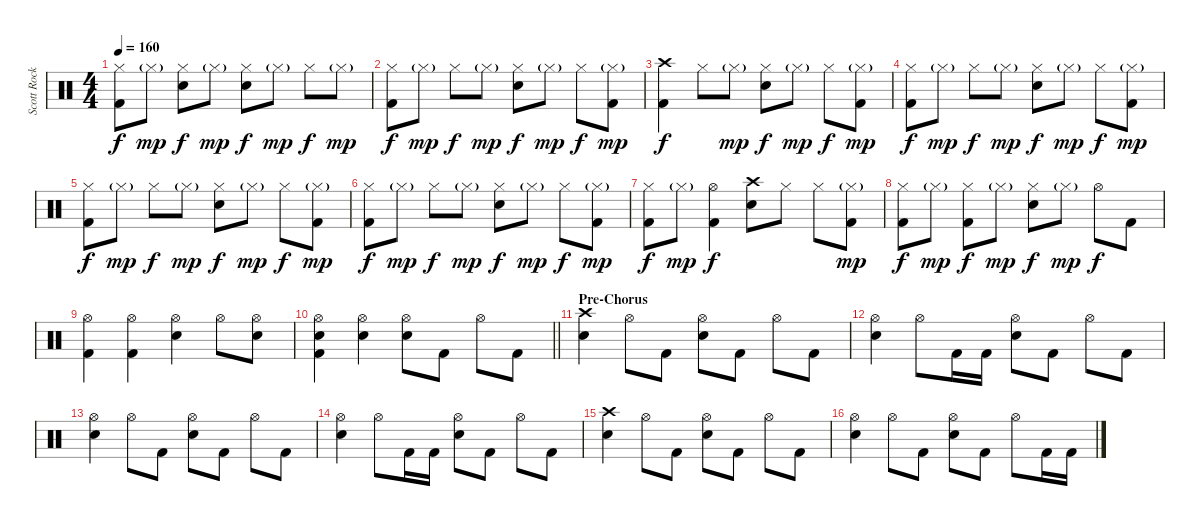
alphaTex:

\track ("Scott Rockenfield" "Scott Rock") {instrument percussion}
\staff {score}
\articulation defaults
\ts (4 4)
\tempo 160
\clef neutral
\ks c
("Hi-Hat (closed)" "Kick (hit) 2").8{dy f} "Hi-Hat (closed)"{g}.8{dy mp} ("Hi-Hat (closed)" "Electric Snare (hit)").8{dy f} "Hi-Hat (closed)"{g}.8{dy mp} ("Hi-Hat (closed)" "Electric Snare (hit)").8{dy f} "Hi-Hat (closed)"{g}.8{dy mp} "Hi-Hat (closed)".8{dy f} "Hi-Hat (closed)"{g}.8{dy mp} |
("Hi-Hat (closed)" "Kick (hit) 2").8{dy f} "Hi-Hat (closed)"{g}.8{dy mp} "Hi-Hat (closed)".8{dy f} "Hi-Hat (closed)"{g}.8{dy mp} ("Hi-Hat (closed)" "Electric Snare (hit)").8{dy f} "Hi-Hat (closed)"{g}.8{dy mp} "Hi-Hat (closed)".8{dy f} ("Hi-Hat (closed)"{g} "Kick (hit) 2").8{dy mp} |
("Crash high (hit)" "Kick (hit) 2").4{dy f} "Hi-Hat (closed)".8 "Hi-Hat (closed)"{g}.8{dy mp} ("Hi-Hat (closed)" "Electric Snare (hit)").8{dy f} "Hi-Hat (closed)"{g}.8{dy mp} "Hi-Hat (closed)".8{dy f} ("Hi-Hat (closed)"{g} "Kick (hit) 2").8{dy mp} |
("Hi-Hat (closed)" "Kick (hit) 2").8{dy f} "Hi-Hat (closed)"{g}.8{dy mp} "Hi-Hat (closed)".8{dy f} "Hi-Hat (closed)"{g}.8{dy mp} ("Hi-Hat (closed)" "Electric Snare (hit)").8{dy f} "Hi-Hat (closed)"{g}.8{dy mp} "Hi-Hat (closed)".8{dy f} ("Hi-Hat (closed)"{g} "Kick (hit) 2").8{dy mp} |
("Hi-Hat (closed)" "Kick (hit) 2").8{dy f} "Hi-Hat (closed)"{g}.8{dy mp} "Hi-Hat (closed)".8{dy f} "Hi-Hat (closed)"{g}.8{dy mp} ("Hi-Hat (closed)" "Electric Snare (hit)").8{dy f} "Hi-Hat (closed)"{g}.8{dy mp} "Hi-Hat (closed)".8{dy f} ("Hi-Hat (closed)"{g} "Kick (hit) 2").8{dy mp} |
("Hi-Hat (closed)" "Kick (hit) 2").8{dy f} "Hi-Hat (closed)"{g}.8{dy mp} "Hi-Hat (closed)".8{dy f} "Hi-Hat (closed)"{g}.8{dy mp} ("Hi-Hat (closed)" "Electric Snare (hit)").8{dy f} "Hi-Hat (closed)"{g}.8{dy mp} "Hi-Hat (closed)".8{dy f} ("Hi-Hat (closed)"{g} "Kick (hit) 2").8{dy mp} |
("Hi-Hat (closed)" "Kick (hit) 2").8{dy f} "Hi-Hat (closed)"{g}.8{dy mp} ("Hi-Hat (open)" "Kick (hit) 2").4{dy f} ("Crash high (hit)" "Electric Snare (hit)").8 "Hi-Hat (closed)".8 "Hi-Hat (closed)".8 ("Hi-Hat (closed)"{g} "Kick (hit) 2").8{dy mp} |
("Hi-Hat (closed)" "Kick (hit) 2").8{dy f} "Hi-Hat (closed)"{g}.8{dy mp} ("Hi-Hat (closed)" "Kick (hit) 2").8{dy f} "Hi-Hat (closed)"{g}.8{dy mp} ("Hi-Hat (closed)" "Electric Snare (hit)").8{dy f} "Hi-Hat (closed)"{g}.8{dy mp} "Hi-Hat (open)".8{dy f} "Kick (hit) 2".8 |
("Hi-Hat (open)" "Kick (hit) 2").4 ("Hi-Hat (open)" "Kick (hit) 2").4 ("Hi-Hat (open)" "Electric Snare (hit)").4 "Hi-Hat (open)".8 ("Hi-Hat (open)" "Electric Snare (hit)").8 |
\barLineRight lightlight
("Hi-Hat (open)" "Electric Snare (hit)" "Kick (hit) 2").4 ("Hi-Hat (open)" "Electric Snare (hit)").4 ("Hi-Hat (open)" "Electric Snare (hit)").8 "Kick (hit) 2".8 "Hi-Hat (open)".8 "Kick (hit) 2".8 |
\section ("" "Pre-Chorus")
("Crash high (hit)" "Electric Snare (hit)").4 "Hi-Hat (open)".8 "Kick (hit) 2".8 ("Hi-Hat (open)" "Electric Snare (hit)").8 "Kick (hit) 2".8 "Hi-Hat (open)".8 "Kick (hit) 2".8 |
("Hi-Hat (open)" "Electric Snare (hit)").4 "Hi-Hat (open)".8 "Kick (hit) 2".16 "Kick (hit) 2".16 ("Hi-Hat (open)" "Electric Snare (hit)").8 "Kick (hit) 2".8 "Hi-Hat (open)".8 "Kick (hit) 2".8 |
("Hi-Hat (open)" "Electric Snare (hit)").4 "Hi-Hat (open)".8 "Kick (hit) 2".8 ("Hi-Hat (open)" "Electric Snare (hit)").8 "Kick (hit) 2".8 "Hi-Hat (open)".8 "Kick (hit) 2".8 |
("Hi-Hat (open)" "Electric Snare (hit)").4 "Hi-Hat (open)".8 "Kick (hit) 2".16 "Kick (hit) 2".16 ("Hi-Hat (open)" "Electric Snare (hit)").8 "Kick (hit) 2".8 "Hi-Hat (open)".8 "Kick (hit) 2".8 |
("Crash high (hit)" "Electric Snare (hit)").4 "Hi-Hat (open)".8 "Kick (hit) 2".8 ("Hi-Hat (open)" "Electric Snare (hit)").8 "Kick (hit) 2".8 "Hi-Hat (open)".8 "Kick (hit) 2".8 |
("Hi-Hat (open)" "Electric Snare (hit)").4 "Hi-Hat (open)".8 "Kick (hit) 2".8 ("Hi-Hat (open)" "Electric Snare (hit)").8 "Kick (hit) 2".8 "Hi-Hat (open)".8 "Kick (hit) 2".16 "Kick (hit) 2".16
